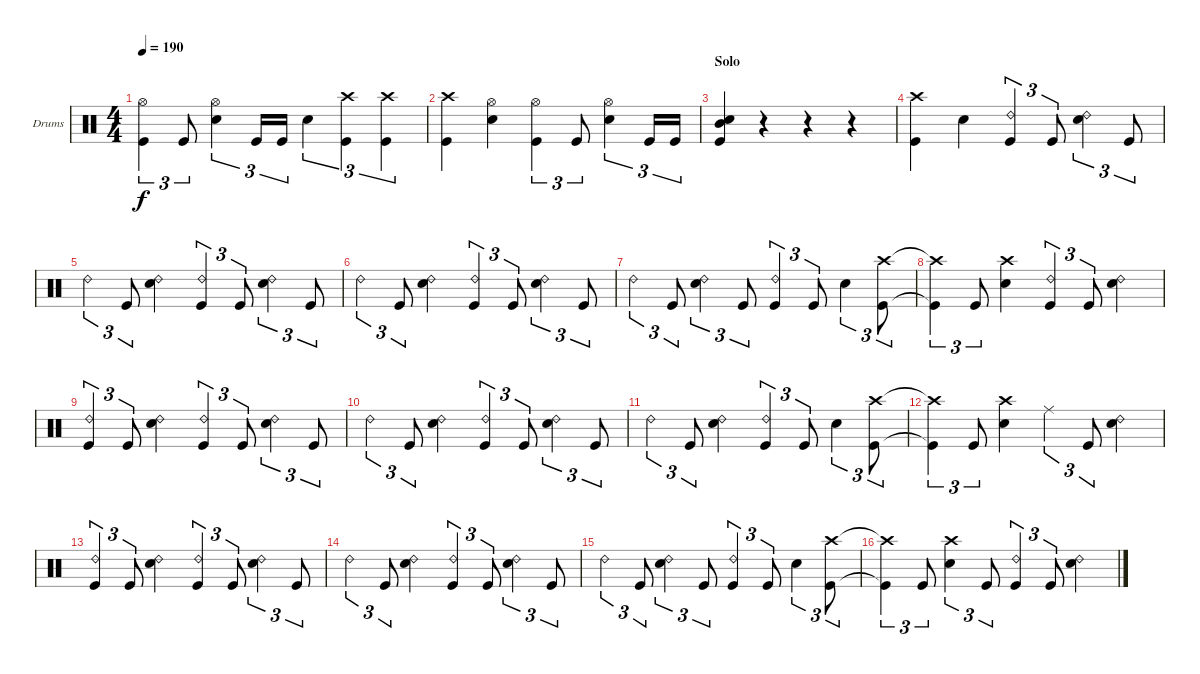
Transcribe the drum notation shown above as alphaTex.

\bracketExtendMode groupsimilarinstruments
\firstSystemTrackNameOrientation horizontal
\otherSystemsTrackNameOrientation horizontal
\track ("Drums" "Drums") {instrument percussion}
\staff {score}
\articulation defaults
\ts (4 4)
\tempo 190
\clef neutral
\ks c
("Kick (hit)" "Hi-Hat (open)").4{tu (3 2) dy f} "Kick (hit)".8{tu (3 2)} ("Snare (hit) 2" "Hi-Hat (open)").4{tu (3 2)} "Kick (hit)".16{tu (3 2)} "Kick (hit)".16{tu (3 2)} "Snare (hit) 2".4{tu (3 2)} ("Crash high (hit)" "Kick (hit)").4{tu (3 2)} ("Crash high (hit)" "Kick (hit)").4{tu (3 2)} |
("Kick (hit)" "Crash high (hit)").4 ("Hi-Hat (open)" "Snare (hit) 2").4 ("Hi-Hat (open)" "Kick (hit)").4{tu (3 2)} "Kick (hit)".8{tu (3 2)} ("Snare (hit) 2" "Hi-Hat (open)").4{tu (3 2)} "Kick (hit)".16{tu (3 2)} "Kick (hit)".16{tu (3 2)} |
\section ("" "Solo")
("Kick (hit)" "Snare (hit) 2" "Mid Tom (hit)").4 r.4 r.4 r.4 |
("Kick (hit)" "Crash high (hit)").4 "Snare (hit) 2".4 ("Kick (hit)" "Ride (bell) 2").4{tu (3 2)} "Kick (hit)".8{tu (3 2)} ("Snare (hit) 2" "Ride (bell) 2").4{tu (3 2)} "Kick (hit)".8{tu (3 2)} |
"Ride (bell) 2".4{tu (3 2)} "Kick (hit)".8{tu (3 2)} ("Snare (hit) 2" "Ride (bell) 2").4 ("Kick (hit)" "Ride (bell) 2").4{tu (3 2)} "Kick (hit)".8{tu (3 2)} ("Snare (hit) 2" "Ride (bell) 2").4{tu (3 2)} "Kick (hit)".8{tu (3 2)} |
"Ride (bell) 2".4{tu (3 2)} "Kick (hit)".8{tu (3 2)} ("Snare (hit) 2" "Ride (bell) 2").4 ("Kick (hit)" "Ride (bell) 2").4{tu (3 2)} "Kick (hit)".8{tu (3 2)} ("Snare (hit) 2" "Ride (bell) 2").4{tu (3 2)} "Kick (hit)".8{tu (3 2)} |
"Ride (bell) 2".4{tu (3 2)} "Kick (hit)".8{tu (3 2)} ("Snare (hit) 2" "Ride (bell) 2").4{tu (3 2)} "Kick (hit)".8{tu (3 2)} ("Kick (hit)" "Ride (bell) 2").4{tu (3 2)} "Kick (hit)".8{tu (3 2)} "Snare (hit) 2".4{tu (3 2)} ("Kick (hit)" "Crash high (hit)").8{tu (3 2)} |
("Kick (hit)"{t} "Crash high (hit)"{t}).4{tu (3 2)} "Kick (hit)".8{tu (3 2)} ("Snare (hit) 2" "Crash high (hit)").4 ("Kick (hit)" "Ride (bell) 2").4{tu (3 2)} "Kick (hit)".8{tu (3 2)} ("Snare (hit) 2" "Ride (bell) 2").4 |
("Kick (hit)" "Ride (bell) 2").4{tu (3 2)} "Kick (hit)".8{tu (3 2)} ("Snare (hit) 2" "Ride (bell) 2").4 ("Kick (hit)" "Ride (bell) 2").4{tu (3 2)} "Kick (hit)".8{tu (3 2)} ("Snare (hit) 2" "Ride (bell) 2").4{tu (3 2)} "Kick (hit)".8{tu (3 2)} |
"Ride (bell) 2".4{tu (3 2)} "Kick (hit)".8{tu (3 2)} ("Snare (hit) 2" "Ride (bell) 2").4 ("Kick (hit)" "Ride (bell) 2").4{tu (3 2)} "Kick (hit)".8{tu (3 2)} ("Snare (hit) 2" "Ride (bell) 2").4{tu (3 2)} "Kick (hit)".8{tu (3 2)} |
"Ride (bell) 2".4{tu (3 2)} "Kick (hit)".8{tu (3 2)} ("Snare (hit) 2" "Ride (bell) 2").4 ("Kick (hit)" "Ride (bell) 2").4{tu (3 2)} "Kick (hit)".8{tu (3 2)} "Snare (hit) 2".4{tu (3 2)} ("Kick (hit)" "Crash high (hit)").8{tu (3 2)} |
("Kick (hit)"{t} "Crash high (hit)"{t}).4{tu (3 2)} "Kick (hit)".8{tu (3 2)} ("Snare (hit) 2" "Crash high (hit)").4 "Ride (middle)".4{tu (3 2)} "Kick (hit)".8{tu (3 2)} ("Snare (hit) 2" "Ride (bell) 2").4 |
("Kick (hit)" "Ride (bell) 2").4{tu (3 2)} "Kick (hit)".8{tu (3 2)} ("Snare (hit) 2" "Ride (bell) 2").4 ("Kick (hit)" "Ride (bell) 2").4{tu (3 2)} "Kick (hit)".8{tu (3 2)} ("Snare (hit) 2" "Ride (bell) 2").4{tu (3 2)} "Kick (hit)".8{tu (3 2)} |
"Ride (bell) 2".4{tu (3 2)} "Kick (hit)".8{tu (3 2)} ("Snare (hit) 2" "Ride (bell) 2").4 ("Kick (hit)" "Ride (bell) 2").4{tu (3 2)} "Kick (hit)".8{tu (3 2)} ("Snare (hit) 2" "Ride (bell) 2").4{tu (3 2)} "Kick (hit)".8{tu (3 2)} |
"Ride (bell) 2".4{tu (3 2)} "Kick (hit)".8{tu (3 2)} ("Snare (hit) 2" "Ride (bell) 2").4{tu (3 2)} "Kick (hit)".8{tu (3 2)} ("Kick (hit)" "Ride (bell) 2").4{tu (3 2)} "Kick (hit)".8{tu (3 2)} "Snare (hit) 2".4{tu (3 2)} ("Kick (hit)" "Crash high (hit)").8{tu (3 2)} |
("Kick (hit)"{t} "Crash high (hit)"{t}).4{tu (3 2)} "Kick (hit)".8{tu (3 2)} ("Snare (hit) 2" "Crash high (hit)").4{tu (3 2)} "Kick (hit)".8{tu (3 2)} ("Kick (hit)" "Ride (bell) 2").4{tu (3 2)} "Kick (hit)".8{tu (3 2)} ("Snare (hit) 2" "Ride (bell) 2").4
